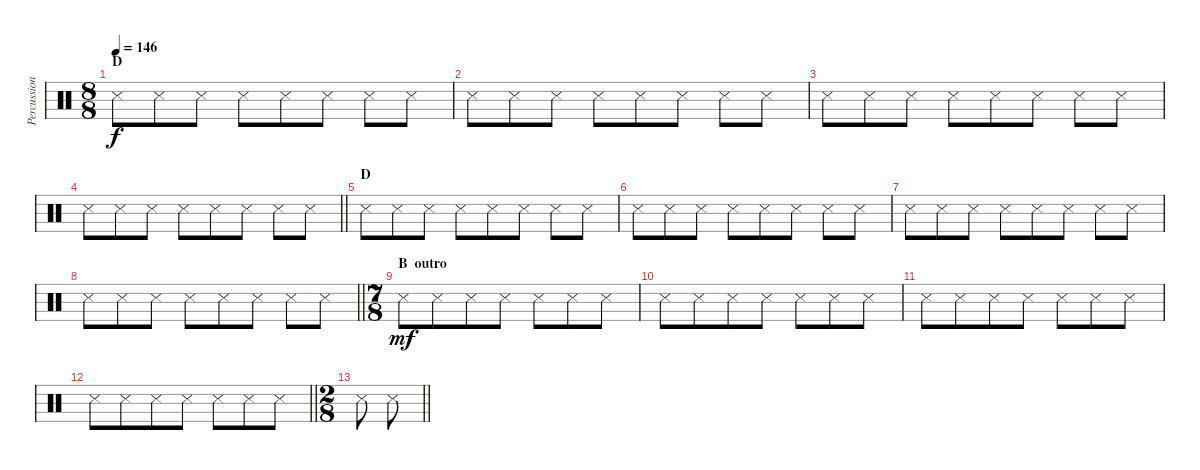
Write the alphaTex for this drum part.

\track ("Percussion" "Percussion") {instrument percussion}
\staff {score}
\articulation defaults
\ts (8 8)
\section ("" "D")
\tempo 146
\clef neutral
\ks c "Metronome (hit)".8{dy f} "Metronome (hit)".8 "Metronome (hit)".8 "Metronome (hit)".8 "Metronome (hit)".8 "Metronome (hit)".8 "Metronome (hit)".8 "Metronome (hit)".8
|
"Metronome (hit)".8 "Metronome (hit)".8 "Metronome (hit)".8 "Metronome (hit)".8 "Metronome (hit)".8 "Metronome (hit)".8 "Metronome (hit)".8 "Metronome (hit)".8 |
"Metronome (hit)".8 "Metronome (hit)".8 "Metronome (hit)".8 "Metronome (hit)".8 "Metronome (hit)".8 "Metronome (hit)".8 "Metronome (hit)".8 "Metronome (hit)".8 |
\barLineRight lightlight "Metronome (hit)".8 "Metronome (hit)".8 "Metronome (hit)".8 "Metronome (hit)".8 "Metronome (hit)".8 "Metronome (hit)".8 "Metronome (hit)".8 "Metronome (hit)".8
|
\section ("" "D")
"Metronome (hit)".8 "Metronome (hit)".8 "Metronome (hit)".8 "Metronome (hit)".8 "Metronome (hit)".8 "Metronome (hit)".8 "Metronome (hit)".8 "Metronome (hit)".8 |
"Metronome (hit)".8 "Metronome (hit)".8 "Metronome (hit)".8 "Metronome (hit)".8 "Metronome (hit)".8 "Metronome (hit)".8 "Metronome (hit)".8 "Metronome (hit)".8 |
"Metronome (hit)".8 "Metronome (hit)".8 "Metronome (hit)".8 "Metronome (hit)".8 "Metronome (hit)".8 "Metronome (hit)".8 "Metronome (hit)".8 "Metronome (hit)".8 |
\barLineRight lightlight "Metronome (hit)".8 "Metronome (hit)".8 "Metronome (hit)".8 "Metronome (hit)".8 "Metronome (hit)".8 "Metronome (hit)".8 "Metronome (hit)".8 "Metronome (hit)".8
|
\ts (7 8)
\section ("" "B  outro")
"Metronome (hit)".8{dy mf} "Metronome (hit)".8 "Metronome (hit)".8 "Metronome (hit)".8 "Metronome (hit)".8 "Metronome (hit)".8 "Metronome (hit)".8 |
"Metronome (hit)".8 "Metronome (hit)".8 "Metronome (hit)".8 "Metronome (hit)".8 "Metronome (hit)".8 "Metronome (hit)".8 "Metronome (hit)".8 |
"Metronome (hit)".8 "Metronome (hit)".8 "Metronome (hit)".8 "Metronome (hit)".8 "Metronome (hit)".8 "Metronome (hit)".8 "Metronome (hit)".8 |
\barLineRight lightlight "Metronome (hit)".8 "Metronome (hit)".8 "Metronome (hit)".8 "Metronome (hit)".8 "Metronome (hit)".8 "Metronome (hit)".8 "Metronome (hit)".8
|
\ts (2 8)
\barLineRight lightlight "Metronome (hit)".8 "Metronome (hit)".8
